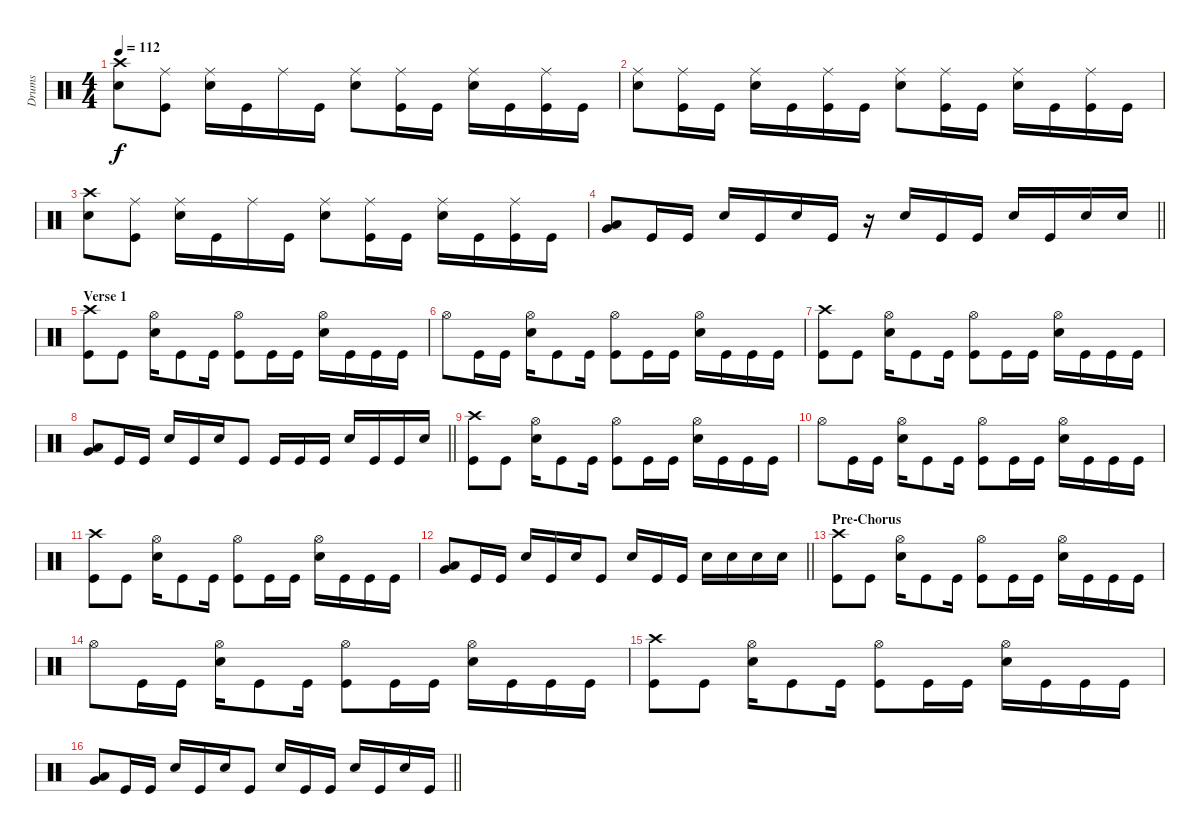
\track ("Drums" "Drums") {instrument percussion}
\staff {score}
\articulation defaults
\ts (4 4)
\tempo 112
\clef neutral
\ks c
("Snare (hit) 2" "Crash high (hit)").8{dy f} ("Ride (middle)" "Kick (hit)").8 ("Ride (middle)" "Snare (hit) 2").16 "Kick (hit)".16 "Ride (middle)".16 "Kick (hit)".16 ("Snare (hit) 2" "Ride (middle)").8 ("Ride (middle)" "Kick (hit)").16 "Kick (hit)".16 ("Ride (middle)" "Snare (hit) 2").16 "Kick (hit)".16 ("Ride (middle)" "Kick (hit)").16 "Kick (hit)".16 |
("Ride (middle)" "Snare (hit) 2").8 ("Ride (middle)" "Kick (hit)").16 "Kick (hit)".16 ("Ride (middle)" "Snare (hit) 2").16 "Kick (hit)".16 ("Ride (middle)" "Kick (hit)").16 "Kick (hit)".16 ("Ride (middle)" "Snare (hit) 2").8 ("Ride (middle)" "Kick (hit)").16 "Kick (hit)".16 ("Ride (middle)" "Snare (hit) 2").16 "Kick (hit)".16 ("Ride (middle)" "Kick (hit)").16 "Kick (hit)".16 |
("Snare (hit) 2" "Crash high (hit)").8 ("Ride (middle)" "Kick (hit)").8 ("Ride (middle)" "Snare (hit) 2").16 "Kick (hit)".16 "Ride (middle)".16 "Kick (hit)".16 ("Snare (hit) 2" "Ride (middle)").8 ("Ride (middle)" "Kick (hit)").16 "Kick (hit)".16 ("Ride (middle)" "Snare (hit) 2").16 "Kick (hit)".16 ("Ride (middle)" "Kick (hit)").16 "Kick (hit)".16 |
\barLineRight lightlight
("Low Tom (hit)" "Very Low Tom (hit)").8 "Kick (hit)".16 "Kick (hit)".16 "Snare (hit) 2".16 "Kick (hit)".16 "Snare (hit) 2".16 "Kick (hit)".16 r.16 "Snare (hit) 2".16 "Kick (hit)".16 "Kick (hit)".16 "Snare (hit) 2".16 "Kick (hit)".16 "Snare (hit) 2".16 "Snare (hit) 2".16 |
\section ("" "Verse 1")
("Kick (hit)" "Crash high (hit)").8 "Kick (hit)".8 ("Hi-Hat (open)" "Snare (hit) 2").16 "Kick (hit)".8 "Kick (hit)".16 ("Hi-Hat (open)" "Kick (hit)").8 "Kick (hit)".16 "Kick (hit)".16 ("Hi-Hat (open)" "Snare (hit) 2").16 "Kick (hit)".16 "Kick (hit)".16 "Kick (hit)".16 |
"Hi-Hat (open)".8 "Kick (hit)".16 "Kick (hit)".16 ("Snare (hit) 2" "Hi-Hat (open)").16 "Kick (hit)".8 "Kick (hit)".16 ("Kick (hit)" "Hi-Hat (open)").8 "Kick (hit)".16 "Kick (hit)".16 ("Snare (hit) 2" "Hi-Hat (open)").16 "Kick (hit)".16 "Kick (hit)".16 "Kick (hit)".16 |
("Kick (hit)" "Crash high (hit)").8 "Kick (hit)".8 ("Hi-Hat (open)" "Snare (hit) 2").16 "Kick (hit)".8 "Kick (hit)".16 ("Hi-Hat (open)" "Kick (hit)").8 "Kick (hit)".16 "Kick (hit)".16 ("Hi-Hat (open)" "Snare (hit) 2").16 "Kick (hit)".16 "Kick (hit)".16 "Kick (hit)".16 |
\barLineRight lightlight
("Low Tom (hit)" "Very Low Tom (hit)").8 "Kick (hit)".16 "Kick (hit)".16 "Snare (hit) 2".16 "Kick (hit)".16 "Snare (hit) 2".16 "Kick (hit)".8 "Kick (hit)".16 "Kick (hit)".16 "Kick (hit)".16 "Snare (hit) 2".16 "Kick (hit)".16 "Kick (hit)".16 "Snare (hit) 2".16 |
("Kick (hit)" "Crash high (hit)").8 "Kick (hit)".8 ("Hi-Hat (open)" "Snare (hit) 2").16 "Kick (hit)".8 "Kick (hit)".16 ("Hi-Hat (open)" "Kick (hit)").8 "Kick (hit)".16 "Kick (hit)".16 ("Hi-Hat (open)" "Snare (hit) 2").16 "Kick (hit)".16 "Kick (hit)".16 "Kick (hit)".16 |
"Hi-Hat (open)".8 "Kick (hit)".16 "Kick (hit)".16 ("Snare (hit) 2" "Hi-Hat (open)").16 "Kick (hit)".8 "Kick (hit)".16 ("Kick (hit)" "Hi-Hat (open)").8 "Kick (hit)".16 "Kick (hit)".16 ("Snare (hit) 2" "Hi-Hat (open)").16 "Kick (hit)".16 "Kick (hit)".16 "Kick (hit)".16 |
("Kick (hit)" "Crash high (hit)").8 "Kick (hit)".8 ("Hi-Hat (open)" "Snare (hit) 2").16 "Kick (hit)".8 "Kick (hit)".16 ("Hi-Hat (open)" "Kick (hit)").8 "Kick (hit)".16 "Kick (hit)".16 ("Hi-Hat (open)" "Snare (hit) 2").16 "Kick (hit)".16 "Kick (hit)".16 "Kick (hit)".16 |
\barLineRight lightlight
("Low Tom (hit)" "Very Low Tom (hit)").8 "Kick (hit)".16 "Kick (hit)".16 "Snare (hit) 2".16 "Kick (hit)".16 "Snare (hit) 2".16 "Kick (hit)".8 "Snare (hit) 2".16 "Kick (hit)".16 "Kick (hit)".16 "Snare (hit) 2".16 "Snare (hit) 2".16 "Snare (hit) 2".16 "Snare (hit) 2".16 |
\section ("" "Pre-Chorus")
("Kick (hit)" "Crash high (hit)").8 "Kick (hit)".8 ("Hi-Hat (open)" "Snare (hit) 2").16 "Kick (hit)".8 "Kick (hit)".16 ("Hi-Hat (open)" "Kick (hit)").8 "Kick (hit)".16 "Kick (hit)".16 ("Hi-Hat (open)" "Snare (hit) 2").16 "Kick (hit)".16 "Kick (hit)".16 "Kick (hit)".16 |
"Hi-Hat (open)".8 "Kick (hit)".16 "Kick (hit)".16 ("Snare (hit) 2" "Hi-Hat (open)").16 "Kick (hit)".8 "Kick (hit)".16 ("Kick (hit)" "Hi-Hat (open)").8 "Kick (hit)".16 "Kick (hit)".16 ("Snare (hit) 2" "Hi-Hat (open)").16 "Kick (hit)".16 "Kick (hit)".16 "Kick (hit)".16 |
("Kick (hit)" "Crash high (hit)").8 "Kick (hit)".8 ("Hi-Hat (open)" "Snare (hit) 2").16 "Kick (hit)".8 "Kick (hit)".16 ("Hi-Hat (open)" "Kick (hit)").8 "Kick (hit)".16 "Kick (hit)".16 ("Hi-Hat (open)" "Snare (hit) 2").16 "Kick (hit)".16 "Kick (hit)".16 "Kick (hit)".16 |
\barLineRight lightlight
("Low Tom (hit)" "Very Low Tom (hit)").8 "Kick (hit)".16 "Kick (hit)".16 "Snare (hit) 2".16 "Kick (hit)".16 "Snare (hit) 2".16 "Kick (hit)".8 "Snare (hit) 2".16 "Kick (hit)".16 "Kick (hit)".16 "Snare (hit) 2".16 "Kick (hit)".16 "Snare (hit) 2".16 "Kick (hit)".16
